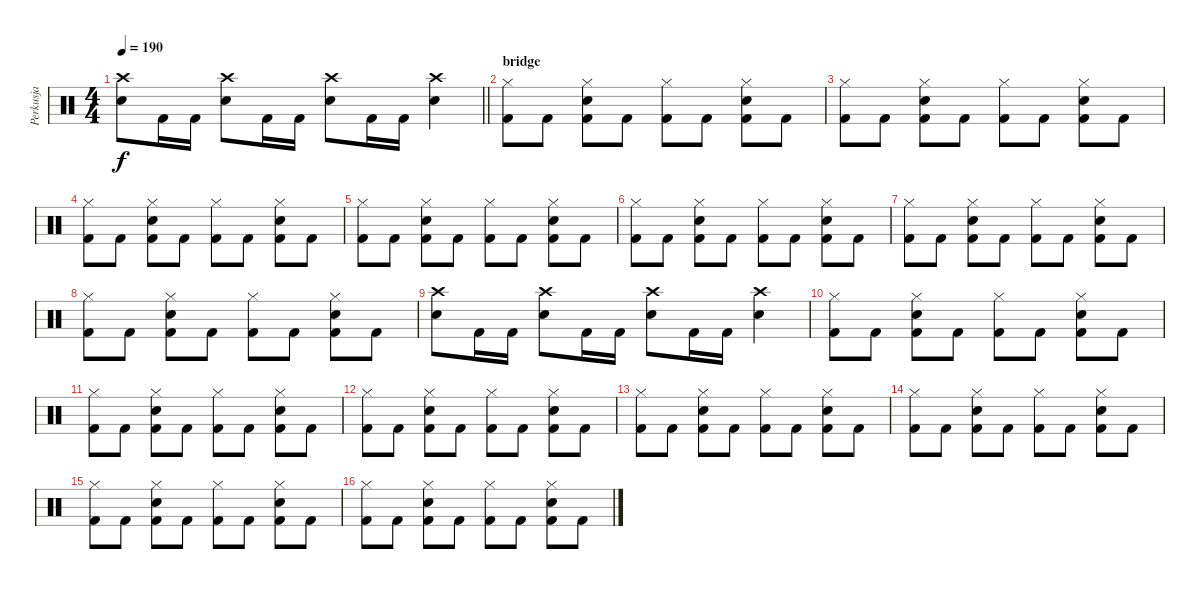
\track ("Perkusja" "Perkusja") {instrument percussion}
\staff {score}
\articulation defaults
\ts (4 4)
\tempo 190
\clef neutral
\barLineRight lightlight
\ks c
("Crash high (hit)" "Snare (hit) 2").8{dy f} "Kick (hit) 2".16 "Kick (hit) 2".16 ("Crash high (hit)" "Snare (hit) 2").8 "Kick (hit) 2".16 "Kick (hit) 2".16 ("Crash high (hit)" "Snare (hit) 2").8 "Kick (hit) 2".16 "Kick (hit) 2".16 ("Crash high (hit)" "Snare (hit) 2").4 |
\section ("" "bridge")
("Kick (hit) 2" "Hi-Hat (closed)").8 "Kick (hit) 2".8 ("Kick (hit) 2" "Snare (hit) 2" "Hi-Hat (closed)").8 "Kick (hit) 2".8 ("Kick (hit) 2" "Hi-Hat (closed)").8 "Kick (hit) 2".8 ("Kick (hit) 2" "Snare (hit) 2" "Hi-Hat (closed)").8 "Kick (hit) 2".8 |
("Kick (hit) 2" "Hi-Hat (closed)").8 "Kick (hit) 2".8 ("Kick (hit) 2" "Snare (hit) 2" "Hi-Hat (closed)").8 "Kick (hit) 2".8 ("Kick (hit) 2" "Hi-Hat (closed)").8 "Kick (hit) 2".8 ("Kick (hit) 2" "Snare (hit) 2" "Hi-Hat (closed)").8 "Kick (hit) 2".8 |
("Kick (hit) 2" "Hi-Hat (closed)").8 "Kick (hit) 2".8 ("Kick (hit) 2" "Snare (hit) 2" "Hi-Hat (closed)").8 "Kick (hit) 2".8 ("Kick (hit) 2" "Hi-Hat (closed)").8 "Kick (hit) 2".8 ("Kick (hit) 2" "Snare (hit) 2" "Hi-Hat (closed)").8 "Kick (hit) 2".8 |
("Kick (hit) 2" "Hi-Hat (closed)").8 "Kick (hit) 2".8 ("Kick (hit) 2" "Snare (hit) 2" "Hi-Hat (closed)").8 "Kick (hit) 2".8 ("Kick (hit) 2" "Hi-Hat (closed)").8 "Kick (hit) 2".8 ("Kick (hit) 2" "Snare (hit) 2" "Hi-Hat (closed)").8 "Kick (hit) 2".8 |
("Kick (hit) 2" "Hi-Hat (closed)").8 "Kick (hit) 2".8 ("Kick (hit) 2" "Snare (hit) 2" "Hi-Hat (closed)").8 "Kick (hit) 2".8 ("Kick (hit) 2" "Hi-Hat (closed)").8 "Kick (hit) 2".8 ("Kick (hit) 2" "Snare (hit) 2" "Hi-Hat (closed)").8 "Kick (hit) 2".8 |
("Kick (hit) 2" "Hi-Hat (closed)").8 "Kick (hit) 2".8 ("Kick (hit) 2" "Snare (hit) 2" "Hi-Hat (closed)").8 "Kick (hit) 2".8 ("Kick (hit) 2" "Hi-Hat (closed)").8 "Kick (hit) 2".8 ("Kick (hit) 2" "Snare (hit) 2" "Hi-Hat (closed)").8 "Kick (hit) 2".8 |
("Kick (hit) 2" "Hi-Hat (closed)").8 "Kick (hit) 2".8 ("Kick (hit) 2" "Snare (hit) 2" "Hi-Hat (closed)").8 "Kick (hit) 2".8 ("Kick (hit) 2" "Hi-Hat (closed)").8 "Kick (hit) 2".8 ("Kick (hit) 2" "Snare (hit) 2" "Hi-Hat (closed)").8 "Kick (hit) 2".8 |
("Crash high (hit)" "Snare (hit) 2").8 "Kick (hit) 2".16 "Kick (hit) 2".16 ("Crash high (hit)" "Snare (hit) 2").8 "Kick (hit) 2".16 "Kick (hit) 2".16 ("Crash high (hit)" "Snare (hit) 2").8 "Kick (hit) 2".16 "Kick (hit) 2".16 ("Crash high (hit)" "Snare (hit) 2").4 |
("Kick (hit) 2" "Hi-Hat (closed)").8 "Kick (hit) 2".8 ("Kick (hit) 2" "Snare (hit) 2" "Hi-Hat (closed)").8 "Kick (hit) 2".8 ("Kick (hit) 2" "Hi-Hat (closed)").8 "Kick (hit) 2".8 ("Kick (hit) 2" "Snare (hit) 2" "Hi-Hat (closed)").8 "Kick (hit) 2".8 |
("Kick (hit) 2" "Hi-Hat (closed)").8 "Kick (hit) 2".8 ("Kick (hit) 2" "Snare (hit) 2" "Hi-Hat (closed)").8 "Kick (hit) 2".8 ("Kick (hit) 2" "Hi-Hat (closed)").8 "Kick (hit) 2".8 ("Kick (hit) 2" "Snare (hit) 2" "Hi-Hat (closed)").8 "Kick (hit) 2".8 |
("Kick (hit) 2" "Hi-Hat (closed)").8 "Kick (hit) 2".8 ("Kick (hit) 2" "Snare (hit) 2" "Hi-Hat (closed)").8 "Kick (hit) 2".8 ("Kick (hit) 2" "Hi-Hat (closed)").8 "Kick (hit) 2".8 ("Kick (hit) 2" "Snare (hit) 2" "Hi-Hat (closed)").8 "Kick (hit) 2".8 |
("Kick (hit) 2" "Hi-Hat (closed)").8 "Kick (hit) 2".8 ("Kick (hit) 2" "Snare (hit) 2" "Hi-Hat (closed)").8 "Kick (hit) 2".8 ("Kick (hit) 2" "Hi-Hat (closed)").8 "Kick (hit) 2".8 ("Kick (hit) 2" "Snare (hit) 2" "Hi-Hat (closed)").8 "Kick (hit) 2".8 |
("Kick (hit) 2" "Hi-Hat (closed)").8 "Kick (hit) 2".8 ("Kick (hit) 2" "Snare (hit) 2" "Hi-Hat (closed)").8 "Kick (hit) 2".8 ("Kick (hit) 2" "Hi-Hat (closed)").8 "Kick (hit) 2".8 ("Kick (hit) 2" "Snare (hit) 2" "Hi-Hat (closed)").8 "Kick (hit) 2".8 |
("Kick (hit) 2" "Hi-Hat (closed)").8 "Kick (hit) 2".8 ("Kick (hit) 2" "Snare (hit) 2" "Hi-Hat (closed)").8 "Kick (hit) 2".8 ("Kick (hit) 2" "Hi-Hat (closed)").8 "Kick (hit) 2".8 ("Kick (hit) 2" "Snare (hit) 2" "Hi-Hat (closed)").8 "Kick (hit) 2".8 |
("Kick (hit) 2" "Hi-Hat (closed)").8 "Kick (hit) 2".8 ("Kick (hit) 2" "Snare (hit) 2" "Hi-Hat (closed)").8 "Kick (hit) 2".8 ("Kick (hit) 2" "Hi-Hat (closed)").8 "Kick (hit) 2".8 ("Kick (hit) 2" "Snare (hit) 2" "Hi-Hat (closed)").8 "Kick (hit) 2".8
